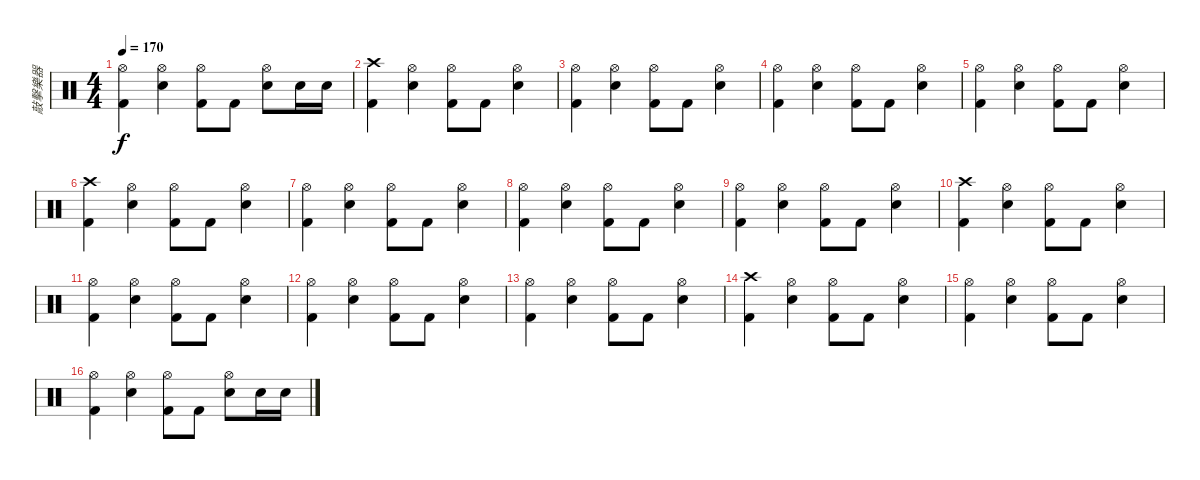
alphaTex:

\track ("敲擊樂器" "敲擊樂器") {instrument percussion}
\staff {score}
\articulation defaults
\ts (4 4)
\tempo 170
\clef neutral
\ks c
("Hi-Hat (open)" "Kick (hit) 2").4{dy f} ("Hi-Hat (open)" "Snare (hit) 2").4 ("Hi-Hat (open)" "Kick (hit) 2").8 "Kick (hit) 2".8 ("Hi-Hat (open)" "Snare (hit) 2").8 "Snare (hit) 2".16 "Snare (hit) 2".16 |
("Crash high (hit)" "Kick (hit) 2").4 ("Hi-Hat (open)" "Snare (hit) 2").4 ("Hi-Hat (open)" "Kick (hit) 2").8 "Kick (hit) 2".8 ("Hi-Hat (open)" "Snare (hit) 2").4 |
("Hi-Hat (open)" "Kick (hit) 2").4 ("Hi-Hat (open)" "Snare (hit) 2").4 ("Hi-Hat (open)" "Kick (hit) 2").8 "Kick (hit) 2".8 ("Hi-Hat (open)" "Snare (hit) 2").4 |
("Hi-Hat (open)" "Kick (hit) 2").4 ("Hi-Hat (open)" "Snare (hit) 2").4 ("Hi-Hat (open)" "Kick (hit) 2").8 "Kick (hit) 2".8 ("Hi-Hat (open)" "Snare (hit) 2").4 |
("Hi-Hat (open)" "Kick (hit) 2").4 ("Hi-Hat (open)" "Snare (hit) 2").4 ("Hi-Hat (open)" "Kick (hit) 2").8 "Kick (hit) 2".8 ("Hi-Hat (open)" "Snare (hit) 2").4 |
("Crash high (hit)" "Kick (hit) 2").4 ("Hi-Hat (open)" "Snare (hit) 2").4 ("Hi-Hat (open)" "Kick (hit) 2").8 "Kick (hit) 2".8 ("Hi-Hat (open)" "Snare (hit) 2").4 |
("Hi-Hat (open)" "Kick (hit) 2").4 ("Hi-Hat (open)" "Snare (hit) 2").4 ("Hi-Hat (open)" "Kick (hit) 2").8 "Kick (hit) 2".8 ("Hi-Hat (open)" "Snare (hit) 2").4 |
("Hi-Hat (open)" "Kick (hit) 2").4 ("Hi-Hat (open)" "Snare (hit) 2").4 ("Hi-Hat (open)" "Kick (hit) 2").8 "Kick (hit) 2".8 ("Hi-Hat (open)" "Snare (hit) 2").4 |
("Hi-Hat (open)" "Kick (hit) 2").4 ("Hi-Hat (open)" "Snare (hit) 2").4 ("Hi-Hat (open)" "Kick (hit) 2").8 "Kick (hit) 2".8 ("Hi-Hat (open)" "Snare (hit) 2").4 |
("Crash high (hit)" "Kick (hit) 2").4 ("Hi-Hat (open)" "Snare (hit) 2").4 ("Hi-Hat (open)" "Kick (hit) 2").8 "Kick (hit) 2".8 ("Hi-Hat (open)" "Snare (hit) 2").4 |
("Hi-Hat (open)" "Kick (hit) 2").4 ("Hi-Hat (open)" "Snare (hit) 2").4 ("Hi-Hat (open)" "Kick (hit) 2").8 "Kick (hit) 2".8 ("Hi-Hat (open)" "Snare (hit) 2").4 |
("Hi-Hat (open)" "Kick (hit) 2").4 ("Hi-Hat (open)" "Snare (hit) 2").4 ("Hi-Hat (open)" "Kick (hit) 2").8 "Kick (hit) 2".8 ("Hi-Hat (open)" "Snare (hit) 2").4 |
("Hi-Hat (open)" "Kick (hit) 2").4 ("Hi-Hat (open)" "Snare (hit) 2").4 ("Hi-Hat (open)" "Kick (hit) 2").8 "Kick (hit) 2".8 ("Hi-Hat (open)" "Snare (hit) 2").4 |
("Crash high (hit)" "Kick (hit) 2").4 ("Hi-Hat (open)" "Snare (hit) 2").4 ("Hi-Hat (open)" "Kick (hit) 2").8 "Kick (hit) 2".8 ("Hi-Hat (open)" "Snare (hit) 2").4 |
("Hi-Hat (open)" "Kick (hit) 2").4 ("Hi-Hat (open)" "Snare (hit) 2").4 ("Hi-Hat (open)" "Kick (hit) 2").8 "Kick (hit) 2".8 ("Hi-Hat (open)" "Snare (hit) 2").4 |
("Hi-Hat (open)" "Kick (hit) 2").4 ("Hi-Hat (open)" "Snare (hit) 2").4 ("Hi-Hat (open)" "Kick (hit) 2").8 "Kick (hit) 2".8 ("Hi-Hat (open)" "Snare (hit) 2").8 "Snare (hit) 2".16 "Snare (hit) 2".16
